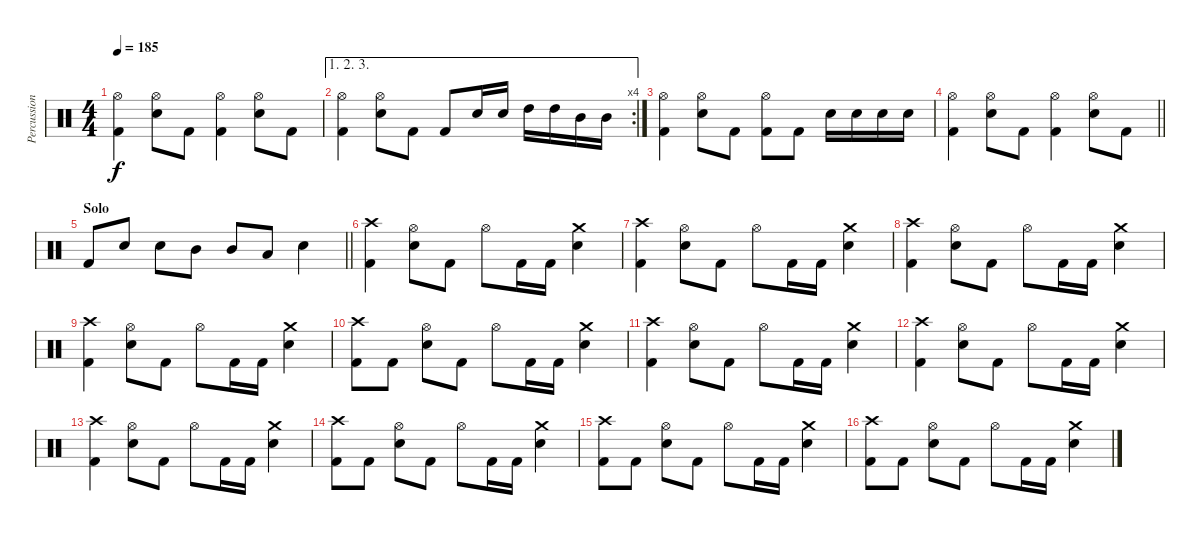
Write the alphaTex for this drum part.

\track ("Percussioni" "Percussion") {instrument percussion}
\staff {score}
\articulation defaults
\ts (4 4)
\tempo 185
\clef neutral
\ks c
("Kick (hit) 2" "Hi-Hat (open)").4{dy f} ("Snare (hit) 2" "Hi-Hat (open)").8 "Kick (hit) 2".8 ("Kick (hit) 2" "Hi-Hat (open)").4 ("Snare (hit) 2" "Hi-Hat (open)").8 "Kick (hit) 2".8 |
\ae (1 2 3)
\rc 4
("Kick (hit) 2" "Hi-Hat (open)").4 ("Snare (hit) 2" "Hi-Hat (open)").8 "Kick (hit) 2".8 "Kick (hit) 2".8 "Snare (hit) 2".16 "Snare (hit) 2".16 "High Tom (hit)".16 "High Tom (hit)".16 "Mid Tom (hit)".16 "Mid Tom (hit)".16 |
("Kick (hit) 2" "Hi-Hat (open)").4 ("Snare (hit) 2" "Hi-Hat (open)").8 "Kick (hit) 2".8 ("Kick (hit) 2" "Hi-Hat (open)").8 "Kick (hit) 2".8 "Snare (hit) 2".16 "Snare (hit) 2".16 "Snare (hit) 2".16 "Snare (hit) 2".16 |
\barLineRight lightlight
("Kick (hit) 2" "Hi-Hat (open)").4 ("Snare (hit) 2" "Hi-Hat (open)").8 "Kick (hit) 2".8 ("Kick (hit) 2" "Hi-Hat (open)").4 ("Snare (hit) 2" "Hi-Hat (open)").8 "Kick (hit) 2".8 |
\section ("" "Solo")
\barLineRight lightlight "Kick (hit) 2".8 "Snare (hit) 2".8 "Snare (hit) 2".8 "Mid Tom (hit)".8 "Mid Tom (hit)".8 "Low Tom (hit)".8 "Snare (hit) 2".4
|
("Kick (hit) 2" "Crash high (hit)").4 ("Snare (hit) 2" "Hi-Hat (open)").8 "Kick (hit) 2".8 "Hi-Hat (open)".8 "Kick (hit) 2".16 "Kick (hit) 2".16 ("Snare (hit) 2" "Crash medium (hit)").4 |
("Kick (hit) 2" "Crash high (hit)").4 ("Snare (hit) 2" "Hi-Hat (open)").8 "Kick (hit) 2".8 "Hi-Hat (open)".8 "Kick (hit) 2".16 "Kick (hit) 2".16 ("Snare (hit) 2" "Crash medium (hit)").4 |
("Kick (hit) 2" "Crash high (hit)").4 ("Snare (hit) 2" "Hi-Hat (open)").8 "Kick (hit) 2".8 "Hi-Hat (open)".8 "Kick (hit) 2".16 "Kick (hit) 2".16 ("Snare (hit) 2" "Crash medium (hit)").4 |
("Kick (hit) 2" "Crash high (hit)").4 ("Snare (hit) 2" "Hi-Hat (open)").8 "Kick (hit) 2".8 "Hi-Hat (open)".8 "Kick (hit) 2".16 "Kick (hit) 2".16 ("Snare (hit) 2" "Crash medium (hit)").4 |
("Kick (hit) 2" "Crash high (hit)").8 "Kick (hit) 2".8 ("Snare (hit) 2" "Hi-Hat (open)").8 "Kick (hit) 2".8 "Hi-Hat (open)".8 "Kick (hit) 2".16 "Kick (hit) 2".16 ("Snare (hit) 2" "Crash medium (hit)").4 |
("Kick (hit) 2" "Crash high (hit)").4 ("Snare (hit) 2" "Hi-Hat (open)").8 "Kick (hit) 2".8 "Hi-Hat (open)".8 "Kick (hit) 2".16 "Kick (hit) 2".16 ("Snare (hit) 2" "Crash medium (hit)").4 |
("Kick (hit) 2" "Crash high (hit)").4 ("Snare (hit) 2" "Hi-Hat (open)").8 "Kick (hit) 2".8 "Hi-Hat (open)".8 "Kick (hit) 2".16 "Kick (hit) 2".16 ("Snare (hit) 2" "Crash medium (hit)").4 |
("Kick (hit) 2" "Crash high (hit)").4 ("Snare (hit) 2" "Hi-Hat (open)").8 "Kick (hit) 2".8 "Hi-Hat (open)".8 "Kick (hit) 2".16 "Kick (hit) 2".16 ("Snare (hit) 2" "Crash medium (hit)").4 |
("Kick (hit) 2" "Crash high (hit)").8 "Kick (hit) 2".8 ("Snare (hit) 2" "Hi-Hat (open)").8 "Kick (hit) 2".8 "Hi-Hat (open)".8 "Kick (hit) 2".16 "Kick (hit) 2".16 ("Snare (hit) 2" "Crash medium (hit)").4 |
("Kick (hit) 2" "Crash high (hit)").8 "Kick (hit) 2".8 ("Snare (hit) 2" "Hi-Hat (open)").8 "Kick (hit) 2".8 "Hi-Hat (open)".8 "Kick (hit) 2".16 "Kick (hit) 2".16 ("Snare (hit) 2" "Crash medium (hit)").4 |
("Kick (hit) 2" "Crash high (hit)").8 "Kick (hit) 2".8 ("Snare (hit) 2" "Hi-Hat (open)").8 "Kick (hit) 2".8 "Hi-Hat (open)".8 "Kick (hit) 2".16 "Kick (hit) 2".16 ("Snare (hit) 2" "Crash medium (hit)").4
